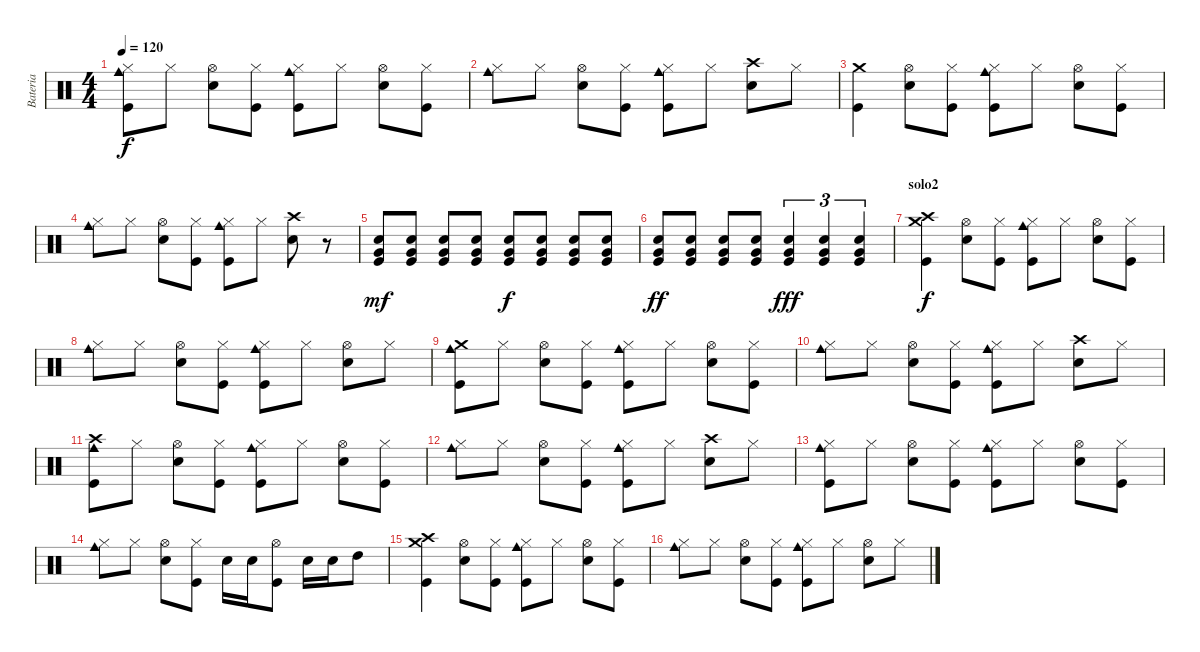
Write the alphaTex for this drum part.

\track ("Bateria" "Bateria") {instrument percussion}
\staff {score}
\articulation defaults
\ts (4 4)
\tempo 120
\clef neutral
\ks c
("Hi-Hat (closed)" "Cowbell medium (hit)" "Kick (hit)").8{dy f} "Hi-Hat (closed)".8 ("Hi-Hat (open)" "Electric Snare (hit)").8 ("Hi-Hat (closed)" "Kick (hit)").8 ("Hi-Hat (closed)" "Cowbell medium (hit)" "Kick (hit)").8 "Hi-Hat (closed)".8 ("Hi-Hat (open)" "Electric Snare (hit)").8 ("Hi-Hat (closed)" "Kick (hit)").8 |
("Hi-Hat (closed)" "Cowbell medium (hit)").8 "Hi-Hat (closed)".8 ("Hi-Hat (open)" "Electric Snare (hit)").8 ("Hi-Hat (closed)" "Kick (hit)").8 ("Hi-Hat (closed)" "Cowbell medium (hit)" "Kick (hit)").8 "Hi-Hat (closed)".8 ("Crash high (hit)" "Electric Snare (hit)").8 "Hi-Hat (closed)".8 |
("Crash medium (hit)" "Kick (hit)").4 ("Hi-Hat (open)" "Electric Snare (hit)").8 ("Hi-Hat (closed)" "Kick (hit)").8 ("Hi-Hat (closed)" "Cowbell medium (hit)" "Kick (hit)").8 "Hi-Hat (closed)".8 ("Hi-Hat (open)" "Electric Snare (hit)").8 ("Hi-Hat (closed)" "Kick (hit)").8 |
("Hi-Hat (closed)" "Cowbell medium (hit)").8 "Hi-Hat (closed)".8 ("Hi-Hat (open)" "Electric Snare (hit)").8 ("Hi-Hat (closed)" "Kick (hit)").8 ("Hi-Hat (closed)" "Cowbell medium (hit)" "Kick (hit)").8 "Hi-Hat (closed)".8 ("Crash high (hit)" "Electric Snare (hit)").8 r.8 |
("Very Low Tom (hit)" "Electric Snare (hit)" "Kick (hit)").8{dy mf} ("Very Low Tom (hit)" "Electric Snare (hit)" "Kick (hit)").8 ("Very Low Tom (hit)" "Electric Snare (hit)" "Kick (hit)").8 ("Very Low Tom (hit)" "Electric Snare (hit)" "Kick (hit)").8 ("Very Low Tom (hit)" "Electric Snare (hit)" "Kick (hit)").8{dy f} ("Very Low Tom (hit)" "Electric Snare (hit)" "Kick (hit)").8 ("Very Low Tom (hit)" "Electric Snare (hit)" "Kick (hit)").8 ("Very Low Tom (hit)" "Electric Snare (hit)" "Kick (hit)").8 |
("Very Low Tom (hit)" "Electric Snare (hit)" "Kick (hit)").8{dy ff} ("Very Low Tom (hit)" "Electric Snare (hit)" "Kick (hit)").8 ("Very Low Tom (hit)" "Electric Snare (hit)" "Kick (hit)").8 ("Very Low Tom (hit)" "Electric Snare (hit)" "Kick (hit)").8 ("Very Low Tom (hit)" "Electric Snare (hit)" "Kick (hit)").4{tu (3 2) dy fff} ("Very Low Tom (hit)" "Electric Snare (hit)" "Kick (hit)").4{tu (3 2)} ("Very Low Tom (hit)" "Electric Snare (hit)" "Kick (hit)").4{tu (3 2)} |
\section ("" "solo2")
("Crash medium (hit)" "Crash high (hit)" "Kick (hit)").4{dy f} ("Hi-Hat (open)" "Electric Snare (hit)").8 ("Hi-Hat (closed)" "Kick (hit)").8 ("Hi-Hat (closed)" "Cowbell medium (hit)" "Kick (hit)").8 "Hi-Hat (closed)".8 ("Hi-Hat (open)" "Electric Snare (hit)").8 ("Hi-Hat (closed)" "Kick (hit)").8 |
("Hi-Hat (closed)" "Cowbell medium (hit)").8 "Hi-Hat (closed)".8 ("Hi-Hat (open)" "Electric Snare (hit)").8 ("Hi-Hat (closed)" "Kick (hit)").8 ("Hi-Hat (closed)" "Cowbell medium (hit)" "Kick (hit)").8 "Hi-Hat (closed)".8 ("Hi-Hat (open)" "Electric Snare (hit)").8 "Hi-Hat (closed)".8 |
("Crash medium (hit)" "Cowbell medium (hit)" "Kick (hit)").8 "Hi-Hat (closed)".8 ("Hi-Hat (open)" "Electric Snare (hit)").8 ("Hi-Hat (closed)" "Kick (hit)").8 ("Hi-Hat (closed)" "Cowbell medium (hit)" "Kick (hit)").8 "Hi-Hat (closed)".8 ("Hi-Hat (open)" "Electric Snare (hit)").8 ("Hi-Hat (closed)" "Kick (hit)").8 |
("Hi-Hat (closed)" "Cowbell medium (hit)").8 "Hi-Hat (closed)".8 ("Hi-Hat (open)" "Electric Snare (hit)").8 ("Hi-Hat (closed)" "Kick (hit)").8 ("Hi-Hat (closed)" "Cowbell medium (hit)" "Kick (hit)").8 "Hi-Hat (closed)".8 ("Crash high (hit)" "Electric Snare (hit)").8 "Hi-Hat (closed)".8 |
("Crash high (hit)" "Cowbell medium (hit)" "Kick (hit)").8 "Hi-Hat (closed)".8 ("Hi-Hat (open)" "Electric Snare (hit)").8 ("Hi-Hat (closed)" "Kick (hit)").8 ("Hi-Hat (closed)" "Cowbell medium (hit)" "Kick (hit)").8 "Hi-Hat (closed)".8 ("Hi-Hat (open)" "Electric Snare (hit)").8 ("Hi-Hat (closed)" "Kick (hit)").8 |
("Hi-Hat (closed)" "Cowbell medium (hit)").8 "Hi-Hat (closed)".8 ("Hi-Hat (open)" "Electric Snare (hit)").8 ("Hi-Hat (closed)" "Kick (hit)").8 ("Hi-Hat (closed)" "Cowbell medium (hit)" "Kick (hit)").8 "Hi-Hat (closed)".8 ("Crash high (hit)" "Electric Snare (hit)").8 "Hi-Hat (closed)".8 |
("Hi-Hat (closed)" "Cowbell medium (hit)" "Kick (hit)").8 "Hi-Hat (closed)".8 ("Hi-Hat (open)" "Electric Snare (hit)").8 ("Hi-Hat (closed)" "Kick (hit)").8 ("Hi-Hat (closed)" "Cowbell medium (hit)" "Kick (hit)").8 "Hi-Hat (closed)".8 ("Hi-Hat (open)" "Electric Snare (hit)").8 ("Hi-Hat (closed)" "Kick (hit)").8 |
("Hi-Hat (closed)" "Cowbell medium (hit)").8 "Hi-Hat (closed)".8 ("Hi-Hat (open)" "Electric Snare (hit)").8 ("Hi-Hat (closed)" "Kick (hit)").8 "Electric Snare (hit)".16 "Electric Snare (hit)".16 ("Hi-Hat (open)" "Kick (hit)").8 "Electric Snare (hit)".16 "Electric Snare (hit)".16 "High Tom (hit)".8 |
("Crash medium (hit)" "Crash high (hit)" "Kick (hit)").4 ("Hi-Hat (open)" "Electric Snare (hit)").8 ("Hi-Hat (closed)" "Kick (hit)").8 ("Hi-Hat (closed)" "Cowbell medium (hit)" "Kick (hit)").8 "Hi-Hat (closed)".8 ("Hi-Hat (open)" "Electric Snare (hit)").8 ("Hi-Hat (closed)" "Kick (hit)").8 |
("Hi-Hat (closed)" "Cowbell medium (hit)").8 "Hi-Hat (closed)".8 ("Hi-Hat (open)" "Electric Snare (hit)").8 ("Hi-Hat (closed)" "Kick (hit)").8 ("Hi-Hat (closed)" "Cowbell medium (hit)" "Kick (hit)").8 "Hi-Hat (closed)".8 ("Hi-Hat (open)" "Electric Snare (hit)").8 "Hi-Hat (closed)".8
